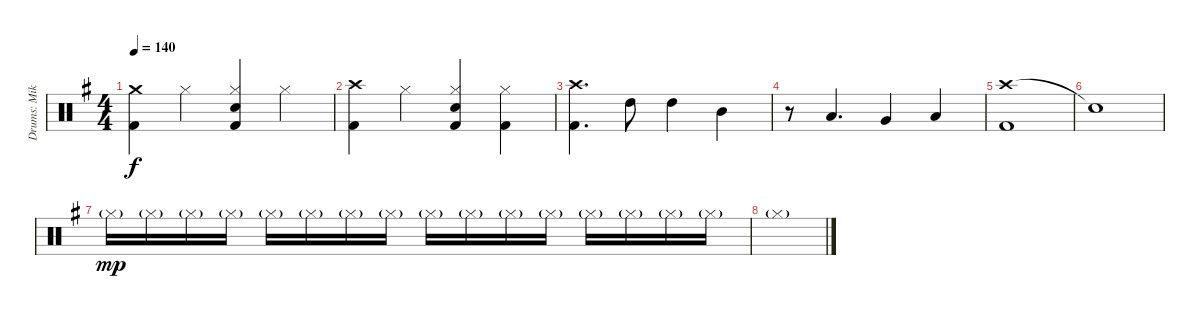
\track ("Drums: Mike Terrana" "Drums: Mik") {instrument percussion}
\staff {score}
\articulation defaults
\ts (4 4)
\tempo 140
\clef neutral
\ks eminor
("Crash medium (hit)" "Kick (hit) 2").4{dy f} "Hi-Hat (closed)".4 ("Hi-Hat (closed)" "Electric Snare (hit)" "Kick (hit) 2").4 "Hi-Hat (closed)".4 |
("Crash high (hit)" "Kick (hit) 2").4 "Hi-Hat (closed)".4 ("Hi-Hat (closed)" "Electric Snare (hit)" "Kick (hit) 2").4 ("Hi-Hat (closed)" "Kick (hit) 2").4 |
("Crash high (hit)" "Kick (hit) 2").4{d} "High Tom (hit)".8 "High Tom (hit)".4 "Mid Tom (hit)".4 |
r.8 "Low Tom (hit)".4{d} "Very Low Tom (hit)".4 "Low Tom (hit)".4 |
("Crash high (hit)" "Kick (hit) 2").1 |
"Snare (hit)"{t}.1 |
"Hi-Hat (closed)"{g}.16{dy mp} "Hi-Hat (closed)"{g}.16 "Hi-Hat (closed)"{g}.16 "Hi-Hat (closed)"{g}.16 "Hi-Hat (closed)"{g}.16 "Hi-Hat (closed)"{g}.16 "Hi-Hat (closed)"{g}.16 "Hi-Hat (closed)"{g}.16 "Hi-Hat (closed)"{g}.16 "Hi-Hat (closed)"{g}.16 "Hi-Hat (closed)"{g}.16 "Hi-Hat (closed)"{g}.16 "Hi-Hat (closed)"{g}.16 "Hi-Hat (closed)"{g}.16 "Hi-Hat (closed)"{g}.16 "Hi-Hat (closed)"{g}.16 |
"Hi-Hat (closed)"{g}.1
